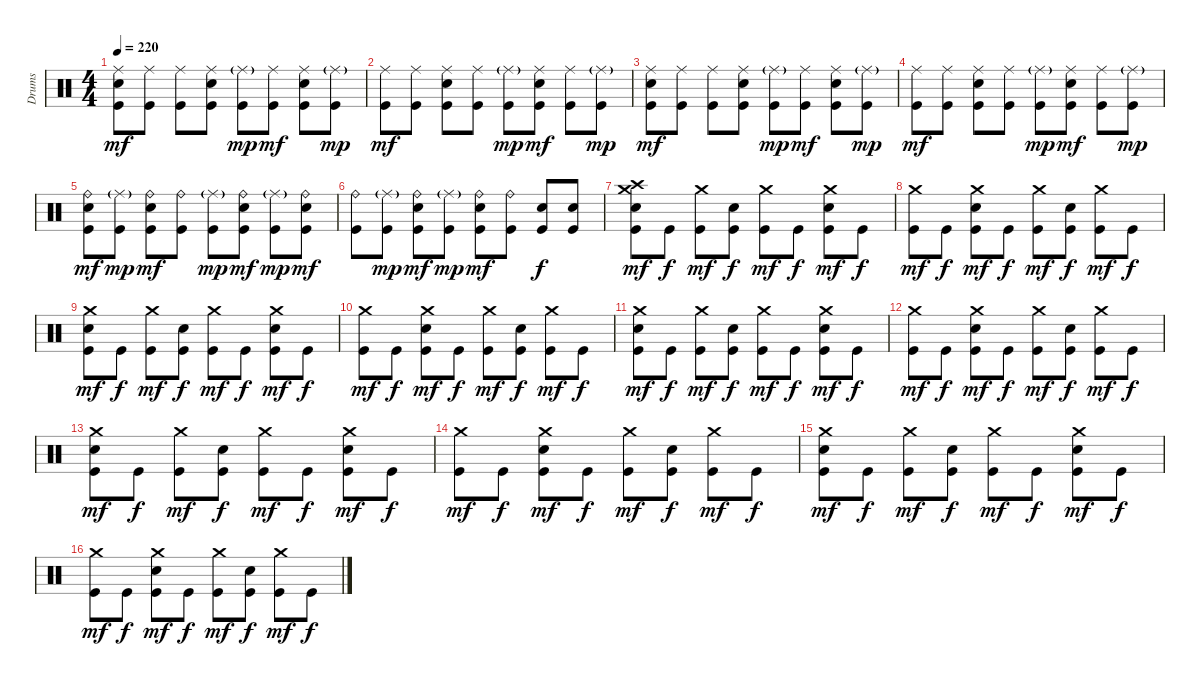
\track ("Drums" "Drums") {instrument percussion}
\staff {score}
\articulation defaults
\ts (4 4)
\tempo 220
\clef neutral
\ks c
("Ride (middle)" "Electric Snare (hit)" "Kick (hit)").8{dy mf} ("Ride (middle)" "Kick (hit)").8 ("Ride (middle)" "Kick (hit)").8 ("Ride (middle)" "Electric Snare (hit)" "Kick (hit)").8 ("Ride (middle)"{g} "Kick (hit)").8{dy mp} ("Ride (middle)" "Kick (hit)").8{dy mf} ("Ride (middle)" "Electric Snare (hit)" "Kick (hit)").8 ("Ride (middle)"{g} "Kick (hit)").8{dy mp} |
("Ride (middle)" "Kick (hit)").8{dy mf} ("Ride (middle)" "Kick (hit)").8 ("Ride (middle)" "Electric Snare (hit)" "Kick (hit)").8 ("Ride (middle)" "Kick (hit)").8 ("Ride (middle)"{g} "Kick (hit)").8{dy mp} ("Ride (middle)" "Electric Snare (hit)" "Kick (hit)").8{dy mf} ("Ride (middle)" "Kick (hit)").8 ("Ride (middle)"{g} "Kick (hit)").8{dy mp} |
("Ride (middle)" "Electric Snare (hit)" "Kick (hit)").8{dy mf} ("Ride (middle)" "Kick (hit)").8 ("Ride (middle)" "Kick (hit)").8 ("Ride (middle)" "Electric Snare (hit)" "Kick (hit)").8 ("Ride (middle)"{g} "Kick (hit)").8{dy mp} ("Ride (middle)" "Kick (hit)").8{dy mf} ("Ride (middle)" "Electric Snare (hit)" "Kick (hit)").8 ("Ride (middle)"{g} "Kick (hit)").8{dy mp} |
("Ride (middle)" "Kick (hit)").8{dy mf} ("Ride (middle)" "Kick (hit)").8 ("Ride (middle)" "Electric Snare (hit)" "Kick (hit)").8 ("Ride (middle)" "Kick (hit)").8 ("Ride (middle)"{g} "Kick (hit)").8{dy mp} ("Ride (middle)" "Electric Snare (hit)" "Kick (hit)").8{dy mf} ("Ride (middle)" "Kick (hit)").8 ("Ride (middle)"{g} "Kick (hit)").8{dy mp} |
("Ride (bell)" "Electric Snare (hit)" "Kick (hit)").8{dy mf} ("Ride (middle)"{g} "Kick (hit)").8{dy mp} ("Ride (bell)" "Electric Snare (hit)" "Kick (hit)").8{dy mf} ("Ride (bell)" "Kick (hit)").8 ("Ride (middle)"{g} "Kick (hit)").8{dy mp} ("Ride (bell)" "Electric Snare (hit)" "Kick (hit)").8{dy mf} ("Ride (middle)"{g} "Kick (hit)").8{dy mp} ("Ride (bell)" "Electric Snare (hit)" "Kick (hit)").8{dy mf} |
("Ride (bell)" "Kick (hit)").8 ("Ride (middle)"{g} "Kick (hit)").8{dy mp} ("Ride (bell)" "Electric Snare (hit)" "Kick (hit)").8{dy mf} ("Ride (middle)"{g} "Kick (hit)").8{dy mp} ("Ride (bell)" "Electric Snare (hit)" "Kick (hit)").8{dy mf} ("Ride (bell)" "Kick (hit)").8 ("Electric Snare (hit)" "Kick (hit)").8{dy f} ("Electric Snare (hit)" "Kick (hit)").8 |
("Crash high (hit)" "Crash medium (hit)" "Electric Snare (hit)" "Kick (hit)").8{dy mf} "Kick (hit)".8{dy f} ("Crash medium (hit)" "Kick (hit)").8{dy mf} ("Electric Snare (hit)" "Kick (hit)").8{dy f} ("Crash medium (hit)" "Kick (hit)").8{dy mf} "Kick (hit)".8{dy f} ("Crash medium (hit)" "Electric Snare (hit)" "Kick (hit)").8{dy mf} "Kick (hit)".8{dy f} |
("Crash medium (hit)" "Kick (hit)").8{dy mf} "Kick (hit)".8{dy f} ("Crash medium (hit)" "Electric Snare (hit)" "Kick (hit)").8{dy mf} "Kick (hit)".8{dy f} ("Crash medium (hit)" "Kick (hit)").8{dy mf} ("Electric Snare (hit)" "Kick (hit)").8{dy f} ("Crash medium (hit)" "Kick (hit)").8{dy mf} "Kick (hit)".8{dy f} |
("Crash medium (hit)" "Electric Snare (hit)" "Kick (hit)").8{dy mf} "Kick (hit)".8{dy f} ("Crash medium (hit)" "Kick (hit)").8{dy mf} ("Electric Snare (hit)" "Kick (hit)").8{dy f} ("Crash medium (hit)" "Kick (hit)").8{dy mf} "Kick (hit)".8{dy f} ("Crash medium (hit)" "Electric Snare (hit)" "Kick (hit)").8{dy mf} "Kick (hit)".8{dy f} |
("Crash medium (hit)" "Kick (hit)").8{dy mf} "Kick (hit)".8{dy f} ("Crash medium (hit)" "Electric Snare (hit)" "Kick (hit)").8{dy mf} "Kick (hit)".8{dy f} ("Crash medium (hit)" "Kick (hit)").8{dy mf} ("Electric Snare (hit)" "Kick (hit)").8{dy f} ("Crash medium (hit)" "Kick (hit)").8{dy mf} "Kick (hit)".8{dy f} |
("Crash medium (hit)" "Electric Snare (hit)" "Kick (hit)").8{dy mf} "Kick (hit)".8{dy f} ("Crash medium (hit)" "Kick (hit)").8{dy mf} ("Electric Snare (hit)" "Kick (hit)").8{dy f} ("Crash medium (hit)" "Kick (hit)").8{dy mf} "Kick (hit)".8{dy f} ("Crash medium (hit)" "Electric Snare (hit)" "Kick (hit)").8{dy mf} "Kick (hit)".8{dy f} |
("Crash medium (hit)" "Kick (hit)").8{dy mf} "Kick (hit)".8{dy f} ("Crash medium (hit)" "Electric Snare (hit)" "Kick (hit)").8{dy mf} "Kick (hit)".8{dy f} ("Crash medium (hit)" "Kick (hit)").8{dy mf} ("Electric Snare (hit)" "Kick (hit)").8{dy f} ("Crash medium (hit)" "Kick (hit)").8{dy mf} "Kick (hit)".8{dy f} |
("Crash medium (hit)" "Electric Snare (hit)" "Kick (hit)").8{dy mf} "Kick (hit)".8{dy f} ("Crash medium (hit)" "Kick (hit)").8{dy mf} ("Electric Snare (hit)" "Kick (hit)").8{dy f} ("Crash medium (hit)" "Kick (hit)").8{dy mf} "Kick (hit)".8{dy f} ("Crash medium (hit)" "Electric Snare (hit)" "Kick (hit)").8{dy mf} "Kick (hit)".8{dy f} |
("Crash medium (hit)" "Kick (hit)").8{dy mf} "Kick (hit)".8{dy f} ("Crash medium (hit)" "Electric Snare (hit)" "Kick (hit)").8{dy mf} "Kick (hit)".8{dy f} ("Crash medium (hit)" "Kick (hit)").8{dy mf} ("Electric Snare (hit)" "Kick (hit)").8{dy f} ("Crash medium (hit)" "Kick (hit)").8{dy mf} "Kick (hit)".8{dy f} |
("Crash medium (hit)" "Electric Snare (hit)" "Kick (hit)").8{dy mf} "Kick (hit)".8{dy f} ("Crash medium (hit)" "Kick (hit)").8{dy mf} ("Electric Snare (hit)" "Kick (hit)").8{dy f} ("Crash medium (hit)" "Kick (hit)").8{dy mf} "Kick (hit)".8{dy f} ("Crash medium (hit)" "Electric Snare (hit)" "Kick (hit)").8{dy mf} "Kick (hit)".8{dy f} |
("Crash medium (hit)" "Kick (hit)").8{dy mf} "Kick (hit)".8{dy f} ("Crash medium (hit)" "Electric Snare (hit)" "Kick (hit)").8{dy mf} "Kick (hit)".8{dy f} ("Crash medium (hit)" "Kick (hit)").8{dy mf} ("Electric Snare (hit)" "Kick (hit)").8{dy f} ("Crash medium (hit)" "Kick (hit)").8{dy mf} "Kick (hit)".8{dy f}
